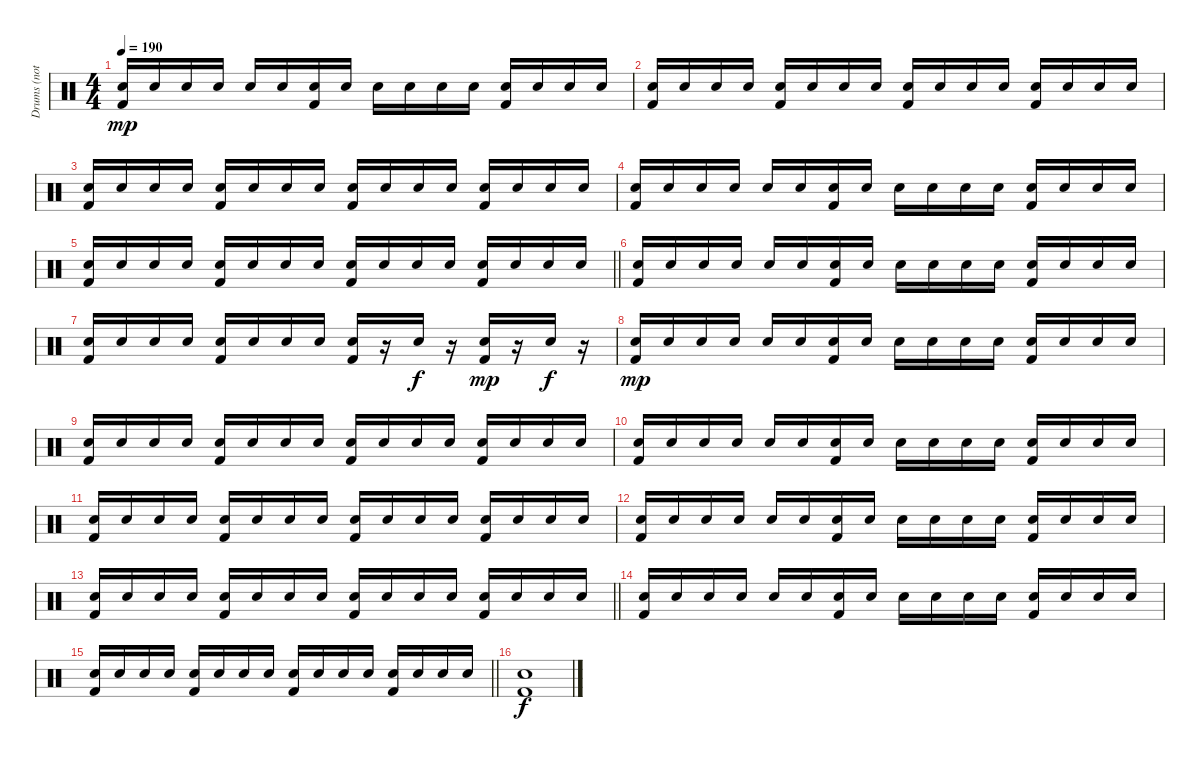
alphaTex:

\track ("Drums (not correct)" "Drums (not") {instrument percussion}
\staff {score}
\articulation defaults
\ts (4 4)
\tempo 190
\clef neutral
\ks c
("Electric Snare (hit)" "Kick (hit) 2").16{dy mp} "Electric Snare (hit)".16 "Electric Snare (hit)".16 "Electric Snare (hit)".16 "Electric Snare (hit)".16 "Electric Snare (hit)".16 ("Electric Snare (hit)" "Kick (hit) 2").16 "Electric Snare (hit)".16 "Electric Snare (hit)".16 "Electric Snare (hit)".16 "Electric Snare (hit)".16 "Electric Snare (hit)".16 ("Electric Snare (hit)" "Kick (hit) 2").16 "Electric Snare (hit)".16 "Electric Snare (hit)".16 "Electric Snare (hit)".16 |
("Electric Snare (hit)" "Kick (hit) 2").16 "Electric Snare (hit)".16 "Electric Snare (hit)".16 "Electric Snare (hit)".16 ("Electric Snare (hit)" "Kick (hit) 2").16 "Electric Snare (hit)".16 "Electric Snare (hit)".16 "Electric Snare (hit)".16 ("Electric Snare (hit)" "Kick (hit) 2").16 "Electric Snare (hit)".16 "Electric Snare (hit)".16 "Electric Snare (hit)".16 ("Electric Snare (hit)" "Kick (hit) 2").16 "Electric Snare (hit)".16 "Electric Snare (hit)".16 "Electric Snare (hit)".16 |
("Electric Snare (hit)" "Kick (hit) 2").16 "Electric Snare (hit)".16 "Electric Snare (hit)".16 "Electric Snare (hit)".16 ("Electric Snare (hit)" "Kick (hit) 2").16 "Electric Snare (hit)".16 "Electric Snare (hit)".16 "Electric Snare (hit)".16 ("Electric Snare (hit)" "Kick (hit) 2").16 "Electric Snare (hit)".16 "Electric Snare (hit)".16 "Electric Snare (hit)".16 ("Electric Snare (hit)" "Kick (hit) 2").16 "Electric Snare (hit)".16 "Electric Snare (hit)".16 "Electric Snare (hit)".16 |
("Electric Snare (hit)" "Kick (hit) 2").16 "Electric Snare (hit)".16 "Electric Snare (hit)".16 "Electric Snare (hit)".16 "Electric Snare (hit)".16 "Electric Snare (hit)".16 ("Electric Snare (hit)" "Kick (hit) 2").16 "Electric Snare (hit)".16 "Electric Snare (hit)".16 "Electric Snare (hit)".16 "Electric Snare (hit)".16 "Electric Snare (hit)".16 ("Electric Snare (hit)" "Kick (hit) 2").16 "Electric Snare (hit)".16 "Electric Snare (hit)".16 "Electric Snare (hit)".16 |
\barLineRight lightlight
("Electric Snare (hit)" "Kick (hit) 2").16 "Electric Snare (hit)".16 "Electric Snare (hit)".16 "Electric Snare (hit)".16 ("Electric Snare (hit)" "Kick (hit) 2").16 "Electric Snare (hit)".16 "Electric Snare (hit)".16 "Electric Snare (hit)".16 ("Electric Snare (hit)" "Kick (hit) 2").16 "Electric Snare (hit)".16 "Electric Snare (hit)".16 "Electric Snare (hit)".16 ("Electric Snare (hit)" "Kick (hit) 2").16 "Electric Snare (hit)".16 "Electric Snare (hit)".16 "Electric Snare (hit)".16 |
("Electric Snare (hit)" "Kick (hit) 2").16 "Electric Snare (hit)".16 "Electric Snare (hit)".16 "Electric Snare (hit)".16 "Electric Snare (hit)".16 "Electric Snare (hit)".16 ("Electric Snare (hit)" "Kick (hit) 2").16 "Electric Snare (hit)".16 "Electric Snare (hit)".16 "Electric Snare (hit)".16 "Electric Snare (hit)".16 "Electric Snare (hit)".16 ("Electric Snare (hit)" "Kick (hit) 2").16 "Electric Snare (hit)".16 "Electric Snare (hit)".16 "Electric Snare (hit)".16 |
("Electric Snare (hit)" "Kick (hit) 2").16 "Electric Snare (hit)".16 "Electric Snare (hit)".16 "Electric Snare (hit)".16 ("Electric Snare (hit)" "Kick (hit) 2").16 "Electric Snare (hit)".16 "Electric Snare (hit)".16 "Electric Snare (hit)".16 ("Electric Snare (hit)" "Kick (hit) 2").16 r.16 "Electric Snare (hit)".16{dy f} r.16 ("Electric Snare (hit)" "Kick (hit) 2").16{dy mp} r.16 "Electric Snare (hit)".16{dy f} r.16 |
("Electric Snare (hit)" "Kick (hit) 2").16{dy mp} "Electric Snare (hit)".16 "Electric Snare (hit)".16 "Electric Snare (hit)".16 "Electric Snare (hit)".16 "Electric Snare (hit)".16 ("Electric Snare (hit)" "Kick (hit) 2").16 "Electric Snare (hit)".16 "Electric Snare (hit)".16 "Electric Snare (hit)".16 "Electric Snare (hit)".16 "Electric Snare (hit)".16 ("Electric Snare (hit)" "Kick (hit) 2").16 "Electric Snare (hit)".16 "Electric Snare (hit)".16 "Electric Snare (hit)".16 |
("Electric Snare (hit)" "Kick (hit) 2").16 "Electric Snare (hit)".16 "Electric Snare (hit)".16 "Electric Snare (hit)".16 ("Electric Snare (hit)" "Kick (hit) 2").16 "Electric Snare (hit)".16 "Electric Snare (hit)".16 "Electric Snare (hit)".16 ("Electric Snare (hit)" "Kick (hit) 2").16 "Electric Snare (hit)".16 "Electric Snare (hit)".16 "Electric Snare (hit)".16 ("Electric Snare (hit)" "Kick (hit) 2").16 "Electric Snare (hit)".16 "Electric Snare (hit)".16 "Electric Snare (hit)".16 |
("Electric Snare (hit)" "Kick (hit) 2").16 "Electric Snare (hit)".16 "Electric Snare (hit)".16 "Electric Snare (hit)".16 "Electric Snare (hit)".16 "Electric Snare (hit)".16 ("Electric Snare (hit)" "Kick (hit) 2").16 "Electric Snare (hit)".16 "Electric Snare (hit)".16 "Electric Snare (hit)".16 "Electric Snare (hit)".16 "Electric Snare (hit)".16 ("Electric Snare (hit)" "Kick (hit) 2").16 "Electric Snare (hit)".16 "Electric Snare (hit)".16 "Electric Snare (hit)".16 |
("Electric Snare (hit)" "Kick (hit) 2").16 "Electric Snare (hit)".16 "Electric Snare (hit)".16 "Electric Snare (hit)".16 ("Electric Snare (hit)" "Kick (hit) 2").16 "Electric Snare (hit)".16 "Electric Snare (hit)".16 "Electric Snare (hit)".16 ("Electric Snare (hit)" "Kick (hit) 2").16 "Electric Snare (hit)".16 "Electric Snare (hit)".16 "Electric Snare (hit)".16 ("Electric Snare (hit)" "Kick (hit) 2").16 "Electric Snare (hit)".16 "Electric Snare (hit)".16 "Electric Snare (hit)".16 |
("Electric Snare (hit)" "Kick (hit) 2").16 "Electric Snare (hit)".16 "Electric Snare (hit)".16 "Electric Snare (hit)".16 "Electric Snare (hit)".16 "Electric Snare (hit)".16 ("Electric Snare (hit)" "Kick (hit) 2").16 "Electric Snare (hit)".16 "Electric Snare (hit)".16 "Electric Snare (hit)".16 "Electric Snare (hit)".16 "Electric Snare (hit)".16 ("Electric Snare (hit)" "Kick (hit) 2").16 "Electric Snare (hit)".16 "Electric Snare (hit)".16 "Electric Snare (hit)".16 |
\barLineRight lightlight
("Electric Snare (hit)" "Kick (hit) 2").16 "Electric Snare (hit)".16 "Electric Snare (hit)".16 "Electric Snare (hit)".16 ("Electric Snare (hit)" "Kick (hit) 2").16 "Electric Snare (hit)".16 "Electric Snare (hit)".16 "Electric Snare (hit)".16 ("Electric Snare (hit)" "Kick (hit) 2").16 "Electric Snare (hit)".16 "Electric Snare (hit)".16 "Electric Snare (hit)".16 ("Electric Snare (hit)" "Kick (hit) 2").16 "Electric Snare (hit)".16 "Electric Snare (hit)".16 "Electric Snare (hit)".16 |
("Electric Snare (hit)" "Kick (hit) 2").16 "Electric Snare (hit)".16 "Electric Snare (hit)".16 "Electric Snare (hit)".16 "Electric Snare (hit)".16 "Electric Snare (hit)".16 ("Electric Snare (hit)" "Kick (hit) 2").16 "Electric Snare (hit)".16 "Electric Snare (hit)".16 "Electric Snare (hit)".16 "Electric Snare (hit)".16 "Electric Snare (hit)".16 ("Electric Snare (hit)" "Kick (hit) 2").16 "Electric Snare (hit)".16 "Electric Snare (hit)".16 "Electric Snare (hit)".16 |
\barLineRight lightlight
("Electric Snare (hit)" "Kick (hit) 2").16 "Electric Snare (hit)".16 "Electric Snare (hit)".16 "Electric Snare (hit)".16 ("Electric Snare (hit)" "Kick (hit) 2").16 "Electric Snare (hit)".16 "Electric Snare (hit)".16 "Electric Snare (hit)".16 ("Electric Snare (hit)" "Kick (hit) 2").16 "Electric Snare (hit)".16 "Electric Snare (hit)".16 "Electric Snare (hit)".16 ("Electric Snare (hit)" "Kick (hit) 2").16 "Electric Snare (hit)".16 "Electric Snare (hit)".16 "Electric Snare (hit)".16 |
("Electric Snare (hit)" "Kick (hit) 2").1{dy f}
